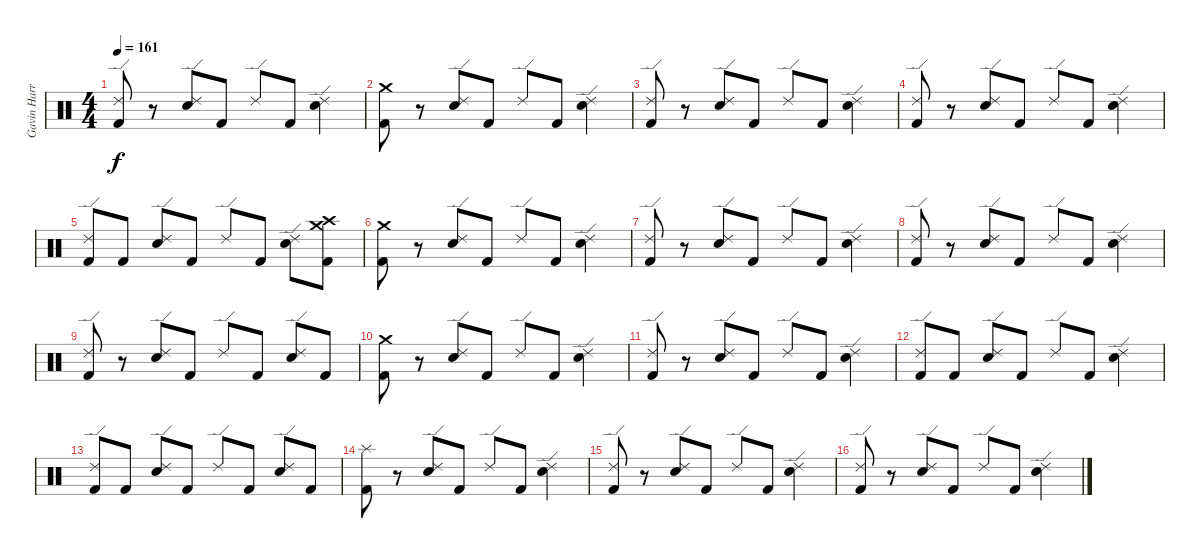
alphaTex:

\track ("Gavin Harrison (Drums)" "Gavin Harr") {instrument percussion}
\staff {score}
\articulation defaults
\ts (4 4)
\tempo 161
\clef neutral
\ks c
("Ride (edge) 2" "Kick (hit) 2").8{dy f} r.8 ("Ride (edge) 2" "Electric Snare (hit)").8 "Kick (hit) 2".8 "Ride (edge) 2".8 "Kick (hit) 2".8 ("Ride (edge) 2" "Electric Snare (hit)").4 |
("Crash medium (hit)" "Kick (hit) 2").8 r.8 ("Ride (edge) 2" "Electric Snare (hit)").8 "Kick (hit) 2".8 "Ride (edge) 2".8 "Kick (hit) 2".8 ("Ride (edge) 2" "Electric Snare (hit)").4 |
("Ride (edge) 2" "Kick (hit) 2").8 r.8 ("Ride (edge) 2" "Electric Snare (hit)").8 "Kick (hit) 2".8 "Ride (edge) 2".8 "Kick (hit) 2".8 ("Ride (edge) 2" "Electric Snare (hit)").4 |
("Ride (edge) 2" "Kick (hit) 2").8 r.8 ("Ride (edge) 2" "Electric Snare (hit)").8 "Kick (hit) 2".8 "Ride (edge) 2".8 "Kick (hit) 2".8 ("Ride (edge) 2" "Electric Snare (hit)").4 |
("Ride (edge) 2" "Kick (hit) 2").8 "Kick (hit) 2".8 ("Ride (edge) 2" "Electric Snare (hit)").8 "Kick (hit) 2".8 "Ride (edge) 2".8 "Kick (hit) 2".8 ("Ride (edge) 2" "Electric Snare (hit)").8 ("Crash high (hit)" "Crash medium (hit)" "Kick (hit) 2").8 |
("Crash medium (hit)" "Kick (hit) 2").8 r.8 ("Ride (edge) 2" "Electric Snare (hit)").8 "Kick (hit) 2".8 "Ride (edge) 2".8 "Kick (hit) 2".8 ("Ride (edge) 2" "Electric Snare (hit)").4 |
("Ride (edge) 2" "Kick (hit) 2").8 r.8 ("Ride (edge) 2" "Electric Snare (hit)").8 "Kick (hit) 2".8 "Ride (edge) 2".8 "Kick (hit) 2".8 ("Ride (edge) 2" "Electric Snare (hit)").4 |
("Ride (edge) 2" "Kick (hit) 2").8 r.8 ("Ride (edge) 2" "Electric Snare (hit)").8 "Kick (hit) 2".8 "Ride (edge) 2".8 "Kick (hit) 2".8 ("Ride (edge) 2" "Electric Snare (hit)").4 |
("Ride (edge) 2" "Kick (hit) 2").8 r.8 ("Ride (edge) 2" "Electric Snare (hit)").8 "Kick (hit) 2".8 "Ride (edge) 2".8 "Kick (hit) 2".8 ("Ride (edge) 2" "Electric Snare (hit)").8 "Kick (hit) 2".8 |
("Crash medium (hit)" "Kick (hit) 2").8 r.8 ("Ride (edge) 2" "Electric Snare (hit)").8 "Kick (hit) 2".8 "Ride (edge) 2".8 "Kick (hit) 2".8 ("Ride (edge) 2" "Electric Snare (hit)").4 |
("Ride (edge) 2" "Kick (hit) 2").8 r.8 ("Ride (edge) 2" "Electric Snare (hit)").8 "Kick (hit) 2".8 "Ride (edge) 2".8 "Kick (hit) 2".8 ("Ride (edge) 2" "Electric Snare (hit)").4 |
("Ride (edge) 2" "Kick (hit) 2").8 "Kick (hit) 2".8 ("Ride (edge) 2" "Electric Snare (hit)").8 "Kick (hit) 2".8 "Ride (edge) 2".8 "Kick (hit) 2".8 ("Ride (edge) 2" "Electric Snare (hit)").4 |
("Ride (edge) 2" "Kick (hit) 2").8 "Kick (hit) 2".8 ("Ride (edge) 2" "Electric Snare (hit)").8 "Kick (hit) 2".8 "Ride (edge) 2".8 "Kick (hit) 2".8 ("Ride (edge) 2" "Electric Snare (hit)").8 "Kick (hit) 2".8 |
("Splash (hit)" "Kick (hit) 2").8 r.8 ("Ride (edge) 2" "Electric Snare (hit)").8 "Kick (hit) 2".8 "Ride (edge) 2".8 "Kick (hit) 2".8 ("Ride (edge) 2" "Electric Snare (hit)").4 |
("Ride (edge) 2" "Kick (hit) 2").8 r.8 ("Ride (edge) 2" "Electric Snare (hit)").8 "Kick (hit) 2".8 "Ride (edge) 2".8 "Kick (hit) 2".8 ("Ride (edge) 2" "Electric Snare (hit)").4 |
("Ride (edge) 2" "Kick (hit) 2").8 r.8 ("Ride (edge) 2" "Electric Snare (hit)").8 "Kick (hit) 2".8 "Ride (edge) 2".8 "Kick (hit) 2".8 ("Ride (edge) 2" "Electric Snare (hit)").4
